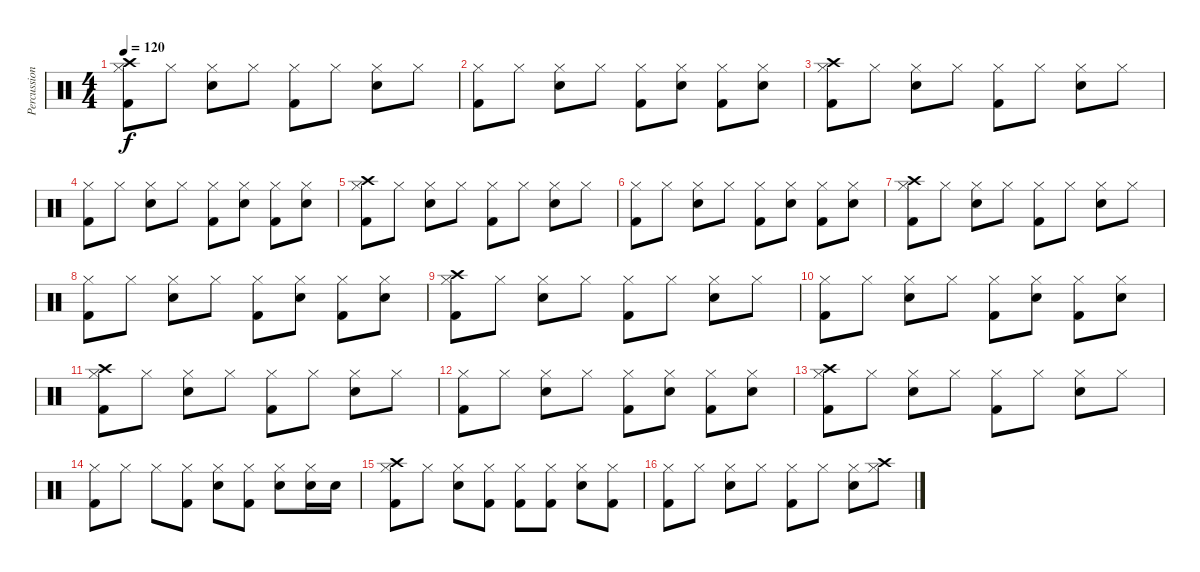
\track ("Percussions" "Percussion") {instrument percussion}
\staff {score}
\articulation defaults
\ts (4 4)
\tempo 120
\clef neutral
\ks c
("Crash high (hit)" "Hi-Hat (closed)" "Kick (hit) 2").8{dy f} "Hi-Hat (closed)".8 ("Hi-Hat (closed)" "Electric Snare (hit)").8 "Hi-Hat (closed)".8 ("Hi-Hat (closed)" "Kick (hit) 2").8 "Hi-Hat (closed)".8 ("Hi-Hat (closed)" "Electric Snare (hit)").8 "Hi-Hat (closed)".8 |
("Hi-Hat (closed)" "Kick (hit) 2").8 "Hi-Hat (closed)".8 ("Hi-Hat (closed)" "Electric Snare (hit)").8 "Hi-Hat (closed)".8 ("Hi-Hat (closed)" "Kick (hit) 2").8 ("Hi-Hat (closed)" "Electric Snare (hit)").8 ("Hi-Hat (closed)" "Kick (hit) 2").8 ("Hi-Hat (closed)" "Electric Snare (hit)").8 |
("Crash high (hit)" "Hi-Hat (closed)" "Kick (hit) 2").8 "Hi-Hat (closed)".8 ("Hi-Hat (closed)" "Electric Snare (hit)").8 "Hi-Hat (closed)".8 ("Hi-Hat (closed)" "Kick (hit) 2").8 "Hi-Hat (closed)".8 ("Hi-Hat (closed)" "Electric Snare (hit)").8 "Hi-Hat (closed)".8 |
("Hi-Hat (closed)" "Kick (hit) 2").8 "Hi-Hat (closed)".8 ("Hi-Hat (closed)" "Electric Snare (hit)").8 "Hi-Hat (closed)".8 ("Hi-Hat (closed)" "Kick (hit) 2").8 ("Hi-Hat (closed)" "Electric Snare (hit)").8 ("Hi-Hat (closed)" "Kick (hit) 2").8 ("Hi-Hat (closed)" "Electric Snare (hit)").8 |
("Crash high (hit)" "Hi-Hat (closed)" "Kick (hit) 2").8 "Hi-Hat (closed)".8 ("Hi-Hat (closed)" "Electric Snare (hit)").8 "Hi-Hat (closed)".8 ("Hi-Hat (closed)" "Kick (hit) 2").8 "Hi-Hat (closed)".8 ("Hi-Hat (closed)" "Electric Snare (hit)").8 "Hi-Hat (closed)".8 |
("Hi-Hat (closed)" "Kick (hit) 2").8 "Hi-Hat (closed)".8 ("Hi-Hat (closed)" "Electric Snare (hit)").8 "Hi-Hat (closed)".8 ("Hi-Hat (closed)" "Kick (hit) 2").8 ("Hi-Hat (closed)" "Electric Snare (hit)").8 ("Hi-Hat (closed)" "Kick (hit) 2").8 ("Hi-Hat (closed)" "Electric Snare (hit)").8 |
("Crash high (hit)" "Hi-Hat (closed)" "Kick (hit) 2").8 "Hi-Hat (closed)".8 ("Hi-Hat (closed)" "Electric Snare (hit)").8 "Hi-Hat (closed)".8 ("Hi-Hat (closed)" "Kick (hit) 2").8 "Hi-Hat (closed)".8 ("Hi-Hat (closed)" "Electric Snare (hit)").8 "Hi-Hat (closed)".8 |
("Hi-Hat (closed)" "Kick (hit) 2").8 "Hi-Hat (closed)".8 ("Hi-Hat (closed)" "Electric Snare (hit)").8 "Hi-Hat (closed)".8 ("Hi-Hat (closed)" "Kick (hit) 2").8 ("Hi-Hat (closed)" "Electric Snare (hit)").8 ("Hi-Hat (closed)" "Kick (hit) 2").8 ("Hi-Hat (closed)" "Electric Snare (hit)").8 |
("Crash high (hit)" "Hi-Hat (closed)" "Kick (hit) 2").8 "Hi-Hat (closed)".8 ("Hi-Hat (closed)" "Electric Snare (hit)").8 "Hi-Hat (closed)".8 ("Hi-Hat (closed)" "Kick (hit) 2").8 "Hi-Hat (closed)".8 ("Hi-Hat (closed)" "Electric Snare (hit)").8 "Hi-Hat (closed)".8 |
("Hi-Hat (closed)" "Kick (hit) 2").8 "Hi-Hat (closed)".8 ("Hi-Hat (closed)" "Electric Snare (hit)").8 "Hi-Hat (closed)".8 ("Hi-Hat (closed)" "Kick (hit) 2").8 ("Hi-Hat (closed)" "Electric Snare (hit)").8 ("Hi-Hat (closed)" "Kick (hit) 2").8 ("Hi-Hat (closed)" "Electric Snare (hit)").8 |
("Crash high (hit)" "Hi-Hat (closed)" "Kick (hit) 2").8 "Hi-Hat (closed)".8 ("Hi-Hat (closed)" "Electric Snare (hit)").8 "Hi-Hat (closed)".8 ("Hi-Hat (closed)" "Kick (hit) 2").8 "Hi-Hat (closed)".8 ("Hi-Hat (closed)" "Electric Snare (hit)").8 "Hi-Hat (closed)".8 |
("Hi-Hat (closed)" "Kick (hit) 2").8 "Hi-Hat (closed)".8 ("Hi-Hat (closed)" "Electric Snare (hit)").8 "Hi-Hat (closed)".8 ("Hi-Hat (closed)" "Kick (hit) 2").8 ("Hi-Hat (closed)" "Electric Snare (hit)").8 ("Hi-Hat (closed)" "Kick (hit) 2").8 ("Hi-Hat (closed)" "Electric Snare (hit)").8 |
("Crash high (hit)" "Hi-Hat (closed)" "Kick (hit) 2").8 "Hi-Hat (closed)".8 ("Hi-Hat (closed)" "Electric Snare (hit)").8 "Hi-Hat (closed)".8 ("Hi-Hat (closed)" "Kick (hit) 2").8 "Hi-Hat (closed)".8 ("Hi-Hat (closed)" "Electric Snare (hit)").8 "Hi-Hat (closed)".8 |
("Hi-Hat (closed)" "Kick (hit) 2").8 "Hi-Hat (closed)".8 "Hi-Hat (closed)".8 ("Hi-Hat (closed)" "Kick (hit) 2").8 ("Hi-Hat (closed)" "Electric Snare (hit)").8 ("Hi-Hat (closed)" "Kick (hit) 2").8 ("Hi-Hat (closed)" "Electric Snare (hit)").8 ("Hi-Hat (closed)" "Electric Snare (hit)").16 "Electric Snare (hit)".16 |
("Crash high (hit)" "Hi-Hat (closed)" "Kick (hit) 2").8 "Hi-Hat (closed)".8 ("Hi-Hat (closed)" "Electric Snare (hit)").8 ("Hi-Hat (closed)" "Kick (hit) 2").8 ("Hi-Hat (closed)" "Kick (hit) 2").8 ("Hi-Hat (closed)" "Kick (hit) 2").8 ("Hi-Hat (closed)" "Electric Snare (hit)").8 ("Hi-Hat (closed)" "Kick (hit) 2").8 |
("Hi-Hat (closed)" "Kick (hit) 2").8 "Hi-Hat (closed)".8 ("Hi-Hat (closed)" "Electric Snare (hit)").8 "Hi-Hat (closed)".8 ("Hi-Hat (closed)" "Kick (hit) 2").8 "Hi-Hat (closed)".8 ("Hi-Hat (closed)" "Electric Snare (hit)").8 ("Crash high (hit)" "Hi-Hat (closed)").8
